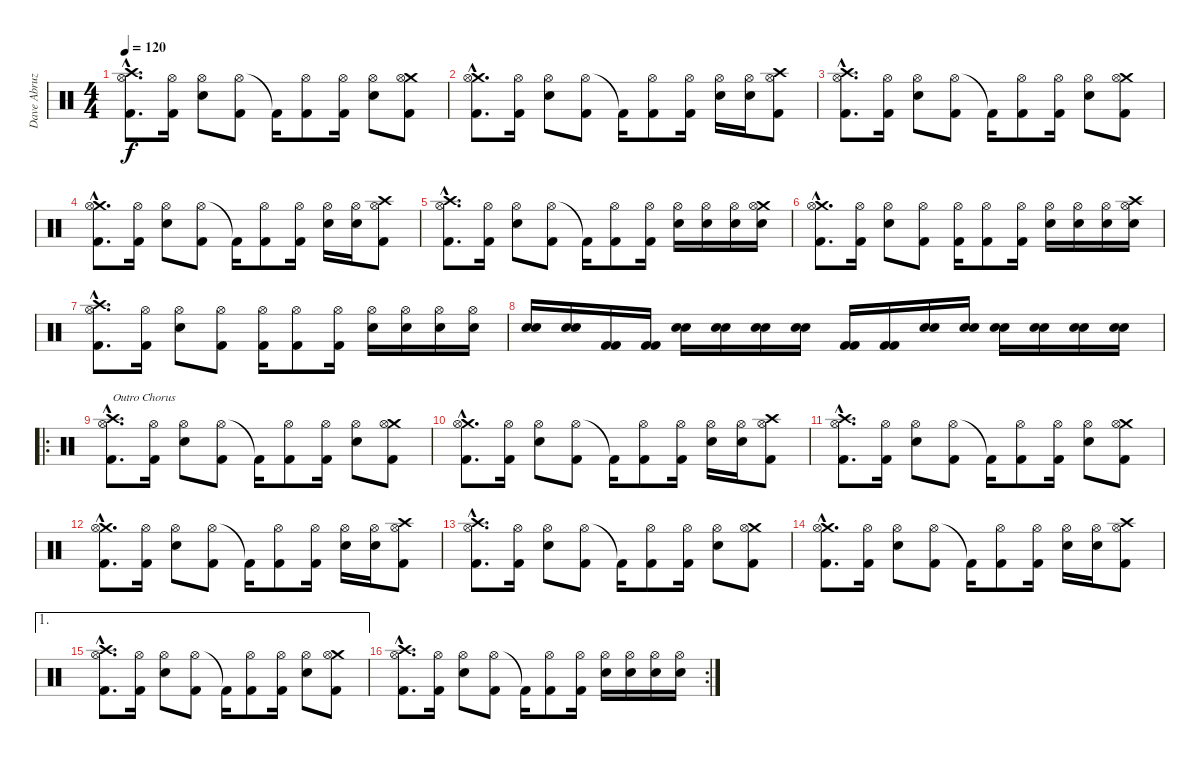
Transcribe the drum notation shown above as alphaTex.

\track ("Dave Abruzzesse" "Dave Abruz") {instrument percussion}
\staff {score}
\articulation defaults
\ts (4 4)
\tempo 120
\clef neutral
\ks c
("Crash high (hit)"{hac} "Hi-Hat (open)"{hac} "Kick (hit) 2"{hac}).8{d dy f} ("Hi-Hat (open)" "Kick (hit) 2").16 ("Hi-Hat (open)" "Snare (hit) 2").8 ("Hi-Hat (open)" "Kick (hit) 2").8 "Kick (hit) 2"{t}.16 ("Hi-Hat (open)" "Kick (hit) 2").8 ("Hi-Hat (open)" "Kick (hit) 2").16 ("Hi-Hat (open)" "Snare (hit) 2").8 ("Crash medium (hit)" "Hi-Hat (open)" "Kick (hit) 2").8 |
("Crash medium (hit)"{hac} "Hi-Hat (open)"{hac} "Kick (hit) 2"{hac}).8{d} ("Hi-Hat (open)" "Kick (hit) 2").16 ("Hi-Hat (open)" "Snare (hit) 2").8 ("Hi-Hat (open)" "Kick (hit) 2").8 "Kick (hit) 2"{t}.16 ("Hi-Hat (open)" "Kick (hit) 2").8 ("Hi-Hat (open)" "Kick (hit) 2").16 ("Hi-Hat (open)" "Snare (hit) 2").16 ("Hi-Hat (open)" "Snare (hit) 2").16 ("Crash high (hit)" "Hi-Hat (open)" "Kick (hit) 2").8 |
("Crash high (hit)"{hac} "Hi-Hat (open)"{hac} "Kick (hit) 2"{hac}).8{d} ("Hi-Hat (open)" "Kick (hit) 2").16 ("Hi-Hat (open)" "Snare (hit) 2").8 ("Hi-Hat (open)" "Kick (hit) 2").8 "Kick (hit) 2"{t}.16 ("Hi-Hat (open)" "Kick (hit) 2").8 ("Hi-Hat (open)" "Kick (hit) 2").16 ("Hi-Hat (open)" "Snare (hit) 2").8 ("Crash medium (hit)" "Hi-Hat (open)" "Kick (hit) 2").8 |
("Crash medium (hit)"{hac} "Hi-Hat (open)"{hac} "Kick (hit) 2"{hac}).8{d} ("Hi-Hat (open)" "Kick (hit) 2").16 ("Hi-Hat (open)" "Snare (hit) 2").8 ("Hi-Hat (open)" "Kick (hit) 2").8 "Kick (hit) 2"{t}.16 ("Hi-Hat (open)" "Kick (hit) 2").8 ("Hi-Hat (open)" "Kick (hit) 2").16 ("Hi-Hat (open)" "Snare (hit) 2").16 ("Hi-Hat (open)" "Snare (hit) 2").16 ("Crash high (hit)" "Hi-Hat (open)" "Kick (hit) 2").8 |
("Crash high (hit)"{hac} "Hi-Hat (open)"{hac} "Kick (hit) 2"{hac}).8{d} ("Hi-Hat (open)" "Kick (hit) 2").16 ("Hi-Hat (open)" "Snare (hit) 2").8 ("Hi-Hat (open)" "Kick (hit) 2").8 "Kick (hit) 2"{t}.16 ("Hi-Hat (open)" "Kick (hit) 2").8 ("Hi-Hat (open)" "Kick (hit) 2").16 ("Hi-Hat (open)" "Snare (hit) 2").16 ("Hi-Hat (open)" "Snare (hit) 2").16 ("Hi-Hat (open)" "Snare (hit) 2").16 ("Crash medium (hit)" "Hi-Hat (open)" "Snare (hit) 2").16 |
("Crash medium (hit)"{hac} "Hi-Hat (open)"{hac} "Kick (hit) 2"{hac}).8{d} ("Hi-Hat (open)" "Kick (hit) 2").16 ("Hi-Hat (open)" "Snare (hit) 2").8 ("Hi-Hat (open)" "Kick (hit) 2").8 ("Hi-Hat (open)" "Kick (hit) 2").16 ("Hi-Hat (open)" "Kick (hit) 2").8 ("Hi-Hat (open)" "Kick (hit) 2").16 ("Hi-Hat (open)" "Snare (hit) 2").16 ("Hi-Hat (open)" "Snare (hit) 2").16 ("Hi-Hat (open)" "Snare (hit) 2").16 ("Crash high (hit)" "Hi-Hat (open)" "Snare (hit) 2").16 |
("Crash high (hit)"{hac} "Hi-Hat (open)"{hac} "Kick (hit) 2"{hac}).8{d} ("Hi-Hat (open)" "Kick (hit) 2").16 ("Hi-Hat (open)" "Snare (hit) 2").8 ("Hi-Hat (open)" "Kick (hit) 2").8 ("Hi-Hat (open)" "Kick (hit) 2").16 ("Hi-Hat (open)" "Kick (hit) 2").8 ("Hi-Hat (open)" "Kick (hit) 2").16 ("Hi-Hat (open)" "Snare (hit) 2").16 ("Hi-Hat (open)" "Snare (hit) 2").16 ("Hi-Hat (open)" "Snare (hit) 2").16 ("Hi-Hat (open)" "Snare (hit) 2").16 |
("Snare (hit) 2" "Snare (hit) 2").16 ("Snare (hit) 2" "Snare (hit) 2").16 ("Kick (hit) 2" "Kick (hit) 2").16 ("Kick (hit) 2" "Kick (hit) 2").16 ("Snare (hit) 2" "Snare (hit) 2").16 ("Snare (hit) 2" "Snare (hit) 2").16 ("Snare (hit) 2" "Snare (hit) 2").16 ("Snare (hit) 2" "Snare (hit) 2").16 ("Kick (hit) 2" "Kick (hit) 2").16 ("Kick (hit) 2" "Kick (hit) 2").16 ("Snare (hit) 2" "Snare (hit) 2").16 ("Snare (hit) 2" "Snare (hit) 2").16 ("Snare (hit) 2" "Snare (hit) 2").16 ("Snare (hit) 2" "Snare (hit) 2").16 ("Snare (hit) 2" "Snare (hit) 2").16 ("Snare (hit) 2" "Snare (hit) 2").16 |
\ro
("Crash high (hit)"{hac} "Hi-Hat (open)"{hac} "Kick (hit) 2"{hac}).8{d txt "Outro Chorus"} ("Hi-Hat (open)" "Kick (hit) 2").16 ("Hi-Hat (open)" "Snare (hit) 2").8 ("Hi-Hat (open)" "Kick (hit) 2").8 "Kick (hit) 2"{t}.16 ("Hi-Hat (open)" "Kick (hit) 2").8 ("Hi-Hat (open)" "Kick (hit) 2").16 ("Hi-Hat (open)" "Snare (hit) 2").8 ("Crash medium (hit)" "Hi-Hat (open)" "Kick (hit) 2").8 |
("Crash medium (hit)"{hac} "Hi-Hat (open)"{hac} "Kick (hit) 2"{hac}).8{d} ("Hi-Hat (open)" "Kick (hit) 2").16 ("Hi-Hat (open)" "Snare (hit) 2").8 ("Hi-Hat (open)" "Kick (hit) 2").8 "Kick (hit) 2"{t}.16 ("Hi-Hat (open)" "Kick (hit) 2").8 ("Hi-Hat (open)" "Kick (hit) 2").16 ("Hi-Hat (open)" "Snare (hit) 2").16 ("Hi-Hat (open)" "Snare (hit) 2").16 ("Crash high (hit)" "Hi-Hat (open)" "Kick (hit) 2").8 |
("Crash high (hit)"{hac} "Hi-Hat (open)"{hac} "Kick (hit) 2"{hac}).8{d} ("Hi-Hat (open)" "Kick (hit) 2").16 ("Hi-Hat (open)" "Snare (hit) 2").8 ("Hi-Hat (open)" "Kick (hit) 2").8 "Kick (hit) 2"{t}.16 ("Hi-Hat (open)" "Kick (hit) 2").8 ("Hi-Hat (open)" "Kick (hit) 2").16 ("Hi-Hat (open)" "Snare (hit) 2").8 ("Crash medium (hit)" "Hi-Hat (open)" "Kick (hit) 2").8 |
("Crash medium (hit)"{hac} "Hi-Hat (open)"{hac} "Kick (hit) 2"{hac}).8{d} ("Hi-Hat (open)" "Kick (hit) 2").16 ("Hi-Hat (open)" "Snare (hit) 2").8 ("Hi-Hat (open)" "Kick (hit) 2").8 "Kick (hit) 2"{t}.16 ("Hi-Hat (open)" "Kick (hit) 2").8 ("Hi-Hat (open)" "Kick (hit) 2").16 ("Hi-Hat (open)" "Snare (hit) 2").16 ("Hi-Hat (open)" "Snare (hit) 2").16 ("Crash high (hit)" "Hi-Hat (open)" "Kick (hit) 2").8 |
("Crash high (hit)"{hac} "Hi-Hat (open)"{hac} "Kick (hit) 2"{hac}).8{d} ("Hi-Hat (open)" "Kick (hit) 2").16 ("Hi-Hat (open)" "Snare (hit) 2").8 ("Hi-Hat (open)" "Kick (hit) 2").8 "Kick (hit) 2"{t}.16 ("Hi-Hat (open)" "Kick (hit) 2").8 ("Hi-Hat (open)" "Kick (hit) 2").16 ("Hi-Hat (open)" "Snare (hit) 2").8 ("Crash medium (hit)" "Hi-Hat (open)" "Kick (hit) 2").8 |
("Crash medium (hit)"{hac} "Hi-Hat (open)"{hac} "Kick (hit) 2"{hac}).8{d} ("Hi-Hat (open)" "Kick (hit) 2").16 ("Hi-Hat (open)" "Snare (hit) 2").8 ("Hi-Hat (open)" "Kick (hit) 2").8 "Kick (hit) 2"{t}.16 ("Hi-Hat (open)" "Kick (hit) 2").8 ("Hi-Hat (open)" "Kick (hit) 2").16 ("Hi-Hat (open)" "Snare (hit) 2").16 ("Hi-Hat (open)" "Snare (hit) 2").16 ("Crash high (hit)" "Hi-Hat (open)" "Kick (hit) 2").8 |
\ae 1
("Crash high (hit)"{hac} "Hi-Hat (open)"{hac} "Kick (hit) 2"{hac}).8{d} ("Hi-Hat (open)" "Kick (hit) 2").16 ("Hi-Hat (open)" "Snare (hit) 2").8 ("Hi-Hat (open)" "Kick (hit) 2").8 "Kick (hit) 2"{t}.16 ("Hi-Hat (open)" "Kick (hit) 2").8 ("Hi-Hat (open)" "Kick (hit) 2").16 ("Hi-Hat (open)" "Snare (hit) 2").8 ("Crash medium (hit)" "Hi-Hat (open)" "Kick (hit) 2").8 |
\rc 2
("Crash high (hit)"{hac} "Hi-Hat (open)"{hac} "Kick (hit) 2"{hac}).8{d} ("Hi-Hat (open)" "Kick (hit) 2").16 ("Hi-Hat (open)" "Snare (hit) 2").8 ("Hi-Hat (open)" "Kick (hit) 2").8 "Kick (hit) 2"{t}.16 ("Hi-Hat (open)" "Kick (hit) 2").8 ("Hi-Hat (open)" "Kick (hit) 2").16 ("Hi-Hat (open)" "Snare (hit) 2").16 ("Hi-Hat (open)" "Snare (hit) 2").16 ("Hi-Hat (open)" "Snare (hit) 2").16 ("Hi-Hat (open)" "Snare (hit) 2").16
